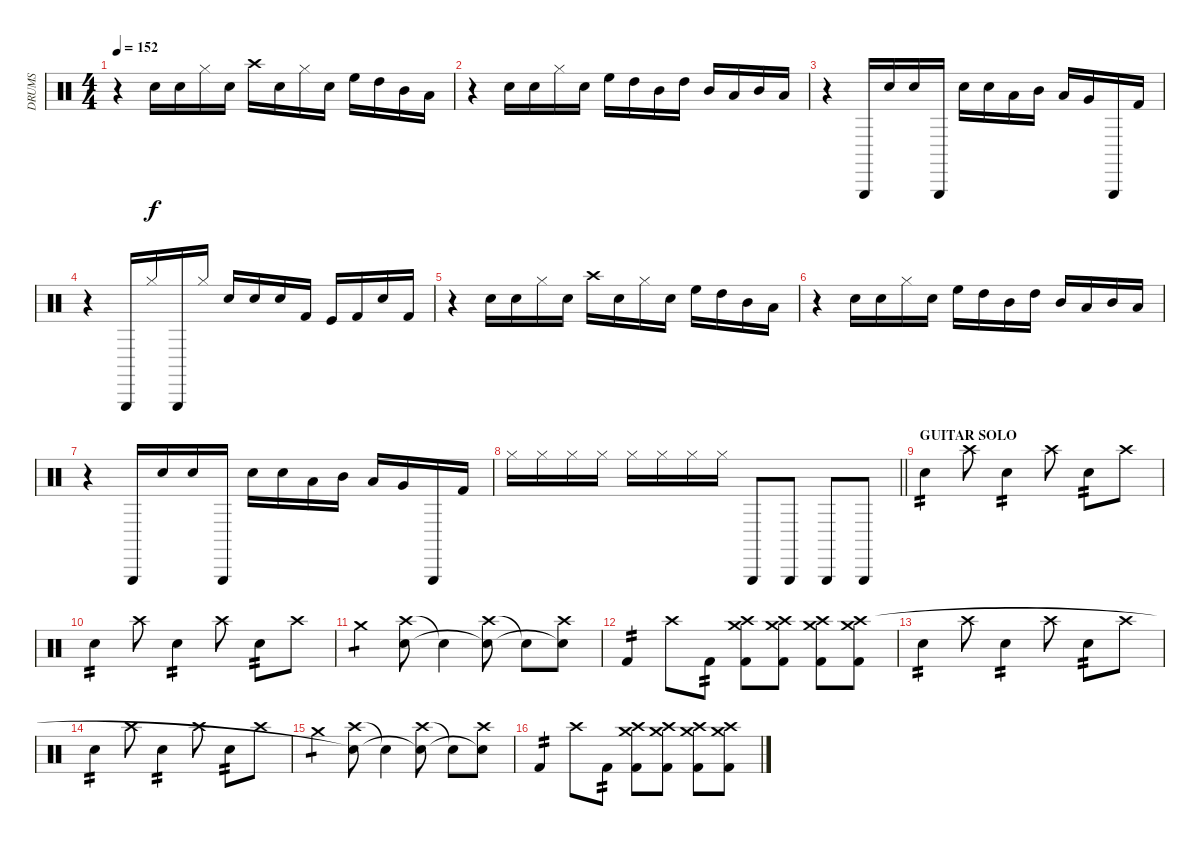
\track ("DRUMS" "DRUMS") {instrument percussion}
\staff {score}
\articulation defaults
\ts (4 4)
\tempo 152
\clef neutral
\ks c
r.4{dy f} "Electric Snare (hit)".16 "Electric Snare (hit)".16 "Hi-Hat (closed)".16 "Electric Snare (hit)".16 "Crash high (hit)".16 "Electric Snare (hit)".16 "Hi-Hat (closed)".16 "Electric Snare (hit)".16 "High Floor Tom (hit)".16 "High Tom (hit)".16 "Mid Tom (hit)".16 "Low Tom (hit)".16 |
r.4 "Electric Snare (hit)".16 "Electric Snare (hit)".16 "Hi-Hat (closed)".16 "Electric Snare (hit)".16 "High Floor Tom (hit)".16 "High Tom (hit)".16 "Mid Tom (hit)".16 "High Tom (hit)".16 "Mid Tom (hit)".16 "Low Tom (hit)".16 "Mid Tom (hit)".16 "Low Tom (hit)".16 |
r.4 "Triangle (hit)".16 "Electric Snare (hit)".16 "Snare (hit) 2".16 "Triangle (hit)".16 "Electric Snare (hit)".16 "Snare (hit) 2".16 "Low Tom (hit)".16 "Mid Tom (hit)".16 "Low Tom (hit)".16 "Very Low Tom (hit)".16 "Triangle (hit)".16 "Kick (hit) 2".16 |
r.4 "Triangle (hit)".16 "Hi-Hat (closed)".16 "Triangle (hit)".16 "Hi-Hat (closed)".16 "Snare (hit) 2".16 "Electric Snare (hit)".16 "Snare (hit) 2".16 "Kick (hit) 2".16 "Kick (hit)".16 "Kick (hit) 2".16 "Snare (hit) 2".16 "Kick (hit) 2".16 |
r.4 "Electric Snare (hit)".16 "Electric Snare (hit)".16 "Hi-Hat (closed)".16 "Electric Snare (hit)".16 "Crash high (hit)".16 "Electric Snare (hit)".16 "Hi-Hat (closed)".16 "Electric Snare (hit)".16 "High Floor Tom (hit)".16 "High Tom (hit)".16 "Mid Tom (hit)".16 "Low Tom (hit)".16 |
r.4 "Electric Snare (hit)".16 "Electric Snare (hit)".16 "Hi-Hat (closed)".16 "Electric Snare (hit)".16 "High Floor Tom (hit)".16 "High Tom (hit)".16 "Mid Tom (hit)".16 "High Tom (hit)".16 "Mid Tom (hit)".16 "Low Tom (hit)".16 "Mid Tom (hit)".16 "Low Tom (hit)".16 |
r.4 "Triangle (hit)".16 "Electric Snare (hit)".16 "Snare (hit) 2".16 "Triangle (hit)".16 "Electric Snare (hit)".16 "Snare (hit) 2".16 "Low Tom (hit)".16 "Mid Tom (hit)".16 "Low Tom (hit)".16 "Very Low Tom (hit)".16 "Triangle (hit)".16 "Kick (hit) 2".16 |
\barLineRight lightlight "Hi-Hat (closed)".16 "Hi-Hat (closed)".16 "Hi-Hat (closed)".16 "Hi-Hat (closed)".16 "Hi-Hat (closed)".16 "Hi-Hat (closed)".16 "Hi-Hat (closed)".16 "Hi-Hat (closed)".16 "Triangle (hit)".8 "Triangle (hit)".8 "Triangle (hit)".8 "Triangle (hit)".8
|
\section ("" "GUITAR SOLO")
"Electric Snare (hit)".4{tp 2} "Crash high (hit)".8 "Electric Snare (hit)".4{tp 2} "Crash high (hit)".8 "Electric Snare (hit)".8{tp 2} "Crash high (hit)".8 |
"Electric Snare (hit)".4{tp 2} "Crash high (hit)".8 "Electric Snare (hit)".4{tp 2} "Crash high (hit)".8 "Electric Snare (hit)".8{tp 2} "Crash high (hit)".8 |
"Crash medium (hit)".4{tp 1} ("Crash high (hit)" "Snare (hit)").8 "Electric Snare (hit)"{t}.4 ("Crash high (hit)" "Snare (hit)"{t}).8 "Electric Snare (hit)"{t}.8 ("Crash high (hit)" "Snare (hit)"{t}).8 |
"Kick (hit) 2".4{tp 2} "Crash high (hit)".8 "Kick (hit) 2".8{tp 2} ("Kick (hit) 2" "Crash high (hit)" "Crash medium (hit)").8 ("Kick (hit) 2" "Crash high (hit)" "Crash medium (hit)").8 ("Kick (hit) 2" "Crash high (hit)" "Crash medium (hit)").8 ("Kick (hit) 2" "Crash high (hit)" "Crash medium (hit)").8 |
"Electric Snare (hit)".4{tp 2} "Crash high (hit)".8 "Electric Snare (hit)".4{tp 2} "Crash high (hit)".8 "Electric Snare (hit)".8{tp 2} "Crash high (hit)".8 |
"Electric Snare (hit)".4{tp 2} "Crash high (hit)".8 "Electric Snare (hit)".4{tp 2} "Crash high (hit)".8 "Electric Snare (hit)".8{tp 2} "Crash high (hit)".8 |
"Crash medium (hit)".4{tp 1} ("Crash high (hit)" "Snare (hit)"{t}).8 "Electric Snare (hit)"{t}.4 ("Crash high (hit)" "Snare (hit)"{t}).8 "Electric Snare (hit)"{t}.8 ("Crash high (hit)" "Snare (hit)"{t}).8 |
"Kick (hit) 2".4{tp 2} "Crash high (hit)".8 "Kick (hit) 2".8{tp 2} ("Kick (hit) 2" "Crash high (hit)" "Crash medium (hit)").8 ("Kick (hit) 2" "Crash high (hit)" "Crash medium (hit)").8 ("Kick (hit) 2" "Crash high (hit)" "Crash medium (hit)").8 ("Kick (hit) 2" "Crash high (hit)" "Crash medium (hit)").8
